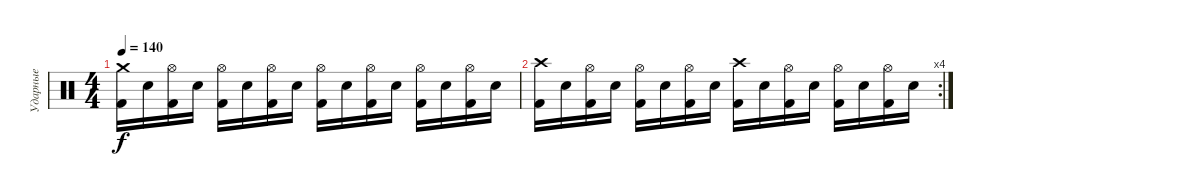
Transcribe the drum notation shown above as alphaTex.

\track ("Ударные" "Ударные") {instrument percussion}
\staff {score}
\articulation defaults
\ts (4 4)
\tempo 140
\clef neutral
\ks c
("Kick (hit) 2" "Crash medium (hit)").16{dy f} "Electric Snare (hit)".16 ("Kick (hit) 2" "Hi-Hat (open)").16 "Electric Snare (hit)".16 ("Kick (hit) 2" "Hi-Hat (open)").16 "Electric Snare (hit)".16 ("Kick (hit) 2" "Hi-Hat (open)").16 "Electric Snare (hit)".16 ("Kick (hit) 2" "Hi-Hat (open)").16 "Electric Snare (hit)".16 ("Kick (hit) 2" "Hi-Hat (open)").16 "Electric Snare (hit)".16 ("Kick (hit) 2" "Hi-Hat (open)").16 "Electric Snare (hit)".16 ("Kick (hit) 2" "Hi-Hat (open)").16 "Electric Snare (hit)".16 |
\rc 4
("Kick (hit) 2" "Crash high (hit)").16 "Electric Snare (hit)".16 ("Kick (hit) 2" "Hi-Hat (open)").16 "Electric Snare (hit)".16 ("Kick (hit) 2" "Hi-Hat (open)").16 "Electric Snare (hit)".16 ("Kick (hit) 2" "Hi-Hat (open)").16 "Electric Snare (hit)".16 ("Kick (hit) 2" "Crash high (hit)").16 "Electric Snare (hit)".16 ("Kick (hit) 2" "Hi-Hat (open)").16 "Electric Snare (hit)".16 ("Kick (hit) 2" "Hi-Hat (open)").16 "Electric Snare (hit)".16 ("Kick (hit) 2" "Hi-Hat (open)").16 "Electric Snare (hit)".16
